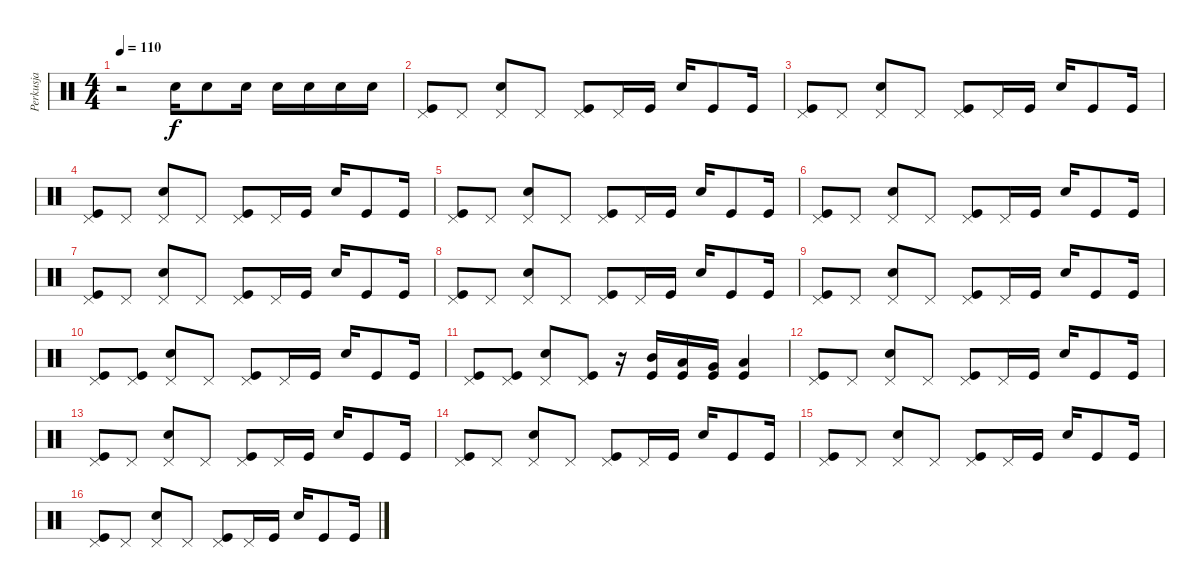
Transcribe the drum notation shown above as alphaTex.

\track ("Perkusja" "Perkusja") {instrument percussion}
\staff {score}
\articulation defaults
\ts (4 4)
\tempo 110
\clef neutral
\ks c
r.2{dy f} "Snare (hit) 2".16 "Snare (hit) 2".8 "Snare (hit) 2".16 "Snare (hit) 2".16 "Snare (hit) 2".16 "Snare (hit) 2".16 "Snare (hit) 2".16 |
("Pedal Hi-Hat (hit)" "Kick (hit)").8 "Pedal Hi-Hat (hit)".8 ("Pedal Hi-Hat (hit)" "Snare (hit) 2").8 "Pedal Hi-Hat (hit)".8 ("Pedal Hi-Hat (hit)" "Kick (hit)").8 "Pedal Hi-Hat (hit)".16 "Kick (hit)".16 "Snare (hit) 2".16 "Kick (hit)".8 "Kick (hit)".16 |
("Pedal Hi-Hat (hit)" "Kick (hit)").8 "Pedal Hi-Hat (hit)".8 ("Pedal Hi-Hat (hit)" "Snare (hit) 2").8 "Pedal Hi-Hat (hit)".8 ("Pedal Hi-Hat (hit)" "Kick (hit)").8 "Pedal Hi-Hat (hit)".16 "Kick (hit)".16 "Snare (hit) 2".16 "Kick (hit)".8 "Kick (hit)".16 |
("Pedal Hi-Hat (hit)" "Kick (hit)").8 "Pedal Hi-Hat (hit)".8 ("Pedal Hi-Hat (hit)" "Snare (hit) 2").8 "Pedal Hi-Hat (hit)".8 ("Pedal Hi-Hat (hit)" "Kick (hit)").8 "Pedal Hi-Hat (hit)".16 "Kick (hit)".16 "Snare (hit) 2".16 "Kick (hit)".8 "Kick (hit)".16 |
("Pedal Hi-Hat (hit)" "Kick (hit)").8 "Pedal Hi-Hat (hit)".8 ("Pedal Hi-Hat (hit)" "Snare (hit) 2").8 "Pedal Hi-Hat (hit)".8 ("Pedal Hi-Hat (hit)" "Kick (hit)").8 "Pedal Hi-Hat (hit)".16 "Kick (hit)".16 "Snare (hit) 2".16 "Kick (hit)".8 "Kick (hit)".16 |
("Pedal Hi-Hat (hit)" "Kick (hit)").8 "Pedal Hi-Hat (hit)".8 ("Pedal Hi-Hat (hit)" "Snare (hit) 2").8 "Pedal Hi-Hat (hit)".8 ("Pedal Hi-Hat (hit)" "Kick (hit)").8 "Pedal Hi-Hat (hit)".16 "Kick (hit)".16 "Snare (hit) 2".16 "Kick (hit)".8 "Kick (hit)".16 |
("Pedal Hi-Hat (hit)" "Kick (hit)").8 "Pedal Hi-Hat (hit)".8 ("Pedal Hi-Hat (hit)" "Snare (hit) 2").8 "Pedal Hi-Hat (hit)".8 ("Pedal Hi-Hat (hit)" "Kick (hit)").8 "Pedal Hi-Hat (hit)".16 "Kick (hit)".16 "Snare (hit) 2".16 "Kick (hit)".8 "Kick (hit)".16 |
("Pedal Hi-Hat (hit)" "Kick (hit)").8 "Pedal Hi-Hat (hit)".8 ("Pedal Hi-Hat (hit)" "Snare (hit) 2").8 "Pedal Hi-Hat (hit)".8 ("Pedal Hi-Hat (hit)" "Kick (hit)").8 "Pedal Hi-Hat (hit)".16 "Kick (hit)".16 "Snare (hit) 2".16 "Kick (hit)".8 "Kick (hit)".16 |
("Pedal Hi-Hat (hit)" "Kick (hit)").8 "Pedal Hi-Hat (hit)".8 ("Pedal Hi-Hat (hit)" "Snare (hit) 2").8 "Pedal Hi-Hat (hit)".8 ("Pedal Hi-Hat (hit)" "Kick (hit)").8 "Pedal Hi-Hat (hit)".16 "Kick (hit)".16 "Snare (hit) 2".16 "Kick (hit)".8 "Kick (hit)".16 |
("Pedal Hi-Hat (hit)" "Kick (hit)").8 ("Pedal Hi-Hat (hit)" "Kick (hit)").8 ("Pedal Hi-Hat (hit)" "Snare (hit) 2").8 "Pedal Hi-Hat (hit)".8 ("Pedal Hi-Hat (hit)" "Kick (hit)").8 "Pedal Hi-Hat (hit)".16 "Kick (hit)".16 "Snare (hit) 2".16 "Kick (hit)".8 "Kick (hit)".16 |
("Pedal Hi-Hat (hit)" "Kick (hit)").8 ("Pedal Hi-Hat (hit)" "Kick (hit)").8 ("Pedal Hi-Hat (hit)" "Snare (hit) 2").8 ("Pedal Hi-Hat (hit)" "Kick (hit)").8 r.16 ("Mid Tom (hit)" "Kick (hit)").16 ("Low Tom (hit)" "Kick (hit)").16 ("Very Low Tom (hit)" "Kick (hit)").16 ("Low Floor Tom (hit)" "Kick (hit)").4 |
("Pedal Hi-Hat (hit)" "Kick (hit)").8 "Pedal Hi-Hat (hit)".8 ("Pedal Hi-Hat (hit)" "Snare (hit) 2").8 "Pedal Hi-Hat (hit)".8 ("Pedal Hi-Hat (hit)" "Kick (hit)").8 "Pedal Hi-Hat (hit)".16 "Kick (hit)".16 "Snare (hit) 2".16 "Kick (hit)".8 "Kick (hit)".16 |
("Pedal Hi-Hat (hit)" "Kick (hit)").8 "Pedal Hi-Hat (hit)".8 ("Pedal Hi-Hat (hit)" "Snare (hit) 2").8 "Pedal Hi-Hat (hit)".8 ("Pedal Hi-Hat (hit)" "Kick (hit)").8 "Pedal Hi-Hat (hit)".16 "Kick (hit)".16 "Snare (hit) 2".16 "Kick (hit)".8 "Kick (hit)".16 |
("Pedal Hi-Hat (hit)" "Kick (hit)").8 "Pedal Hi-Hat (hit)".8 ("Pedal Hi-Hat (hit)" "Snare (hit) 2").8 "Pedal Hi-Hat (hit)".8 ("Pedal Hi-Hat (hit)" "Kick (hit)").8 "Pedal Hi-Hat (hit)".16 "Kick (hit)".16 "Snare (hit) 2".16 "Kick (hit)".8 "Kick (hit)".16 |
("Pedal Hi-Hat (hit)" "Kick (hit)").8 "Pedal Hi-Hat (hit)".8 ("Pedal Hi-Hat (hit)" "Snare (hit) 2").8 "Pedal Hi-Hat (hit)".8 ("Pedal Hi-Hat (hit)" "Kick (hit)").8 "Pedal Hi-Hat (hit)".16 "Kick (hit)".16 "Snare (hit) 2".16 "Kick (hit)".8 "Kick (hit)".16 |
("Pedal Hi-Hat (hit)" "Kick (hit)").8 "Pedal Hi-Hat (hit)".8 ("Pedal Hi-Hat (hit)" "Snare (hit) 2").8 "Pedal Hi-Hat (hit)".8 ("Pedal Hi-Hat (hit)" "Kick (hit)").8 "Pedal Hi-Hat (hit)".16 "Kick (hit)".16 "Snare (hit) 2".16 "Kick (hit)".8 "Kick (hit)".16
